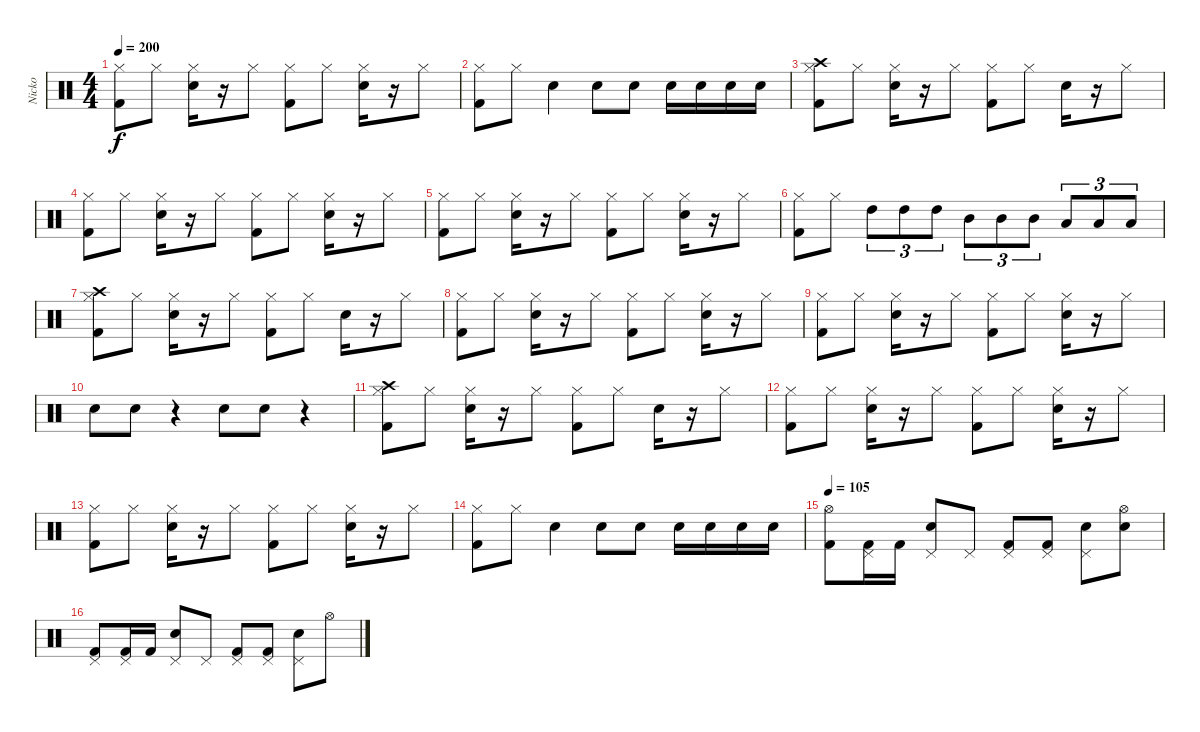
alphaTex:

\track ("Nicko" "Nicko") {instrument percussion}
\staff {score}
\articulation defaults
\ts (4 4)
\tempo 200
\clef neutral
\ks c
("Kick (hit) 2" "Hi-Hat (closed)").8{dy f} "Hi-Hat (closed)".8 ("Snare (hit) 2" "Hi-Hat (closed)").16 r.16 "Hi-Hat (closed)".8 ("Kick (hit) 2" "Hi-Hat (closed)").8 "Hi-Hat (closed)".8 ("Snare (hit) 2" "Hi-Hat (closed)").16 r.16 "Hi-Hat (closed)".8 |
("Kick (hit) 2" "Hi-Hat (closed)").8 "Hi-Hat (closed)".8 "Snare (hit) 2".4 "Snare (hit) 2".8 "Snare (hit) 2".8 "Snare (hit) 2".16 "Snare (hit) 2".16 "Snare (hit) 2".16 "Snare (hit) 2".16 |
("Kick (hit) 2" "Hi-Hat (closed)" "Crash high (hit)").8 "Hi-Hat (closed)".8 ("Snare (hit) 2" "Hi-Hat (closed)").16 r.16 "Hi-Hat (closed)".8 ("Kick (hit) 2" "Hi-Hat (closed)").8 "Hi-Hat (closed)".8 "Snare (hit) 2".16 r.16 "Hi-Hat (closed)".8 |
("Kick (hit) 2" "Hi-Hat (closed)").8 "Hi-Hat (closed)".8 ("Snare (hit) 2" "Hi-Hat (closed)").16 r.16 "Hi-Hat (closed)".8 ("Kick (hit) 2" "Hi-Hat (closed)").8 "Hi-Hat (closed)".8 ("Snare (hit) 2" "Hi-Hat (closed)").16 r.16 "Hi-Hat (closed)".8 |
("Kick (hit) 2" "Hi-Hat (closed)").8 "Hi-Hat (closed)".8 ("Snare (hit) 2" "Hi-Hat (closed)").16 r.16 "Hi-Hat (closed)".8 ("Kick (hit) 2" "Hi-Hat (closed)").8 "Hi-Hat (closed)".8 ("Snare (hit) 2" "Hi-Hat (closed)").16 r.16 "Hi-Hat (closed)".8 |
("Kick (hit) 2" "Hi-Hat (closed)").8 "Hi-Hat (closed)".8 "High Tom (hit)".8{tu (3 2)} "High Tom (hit)".8{tu (3 2)} "High Tom (hit)".8{tu (3 2)} "Mid Tom (hit)".8{tu (3 2)} "Mid Tom (hit)".8{tu (3 2)} "Mid Tom (hit)".8{tu (3 2)} "Low Tom (hit)".8{tu (3 2)} "Low Tom (hit)".8{tu (3 2)} "Low Tom (hit)".8{tu (3 2)} |
("Kick (hit) 2" "Hi-Hat (closed)" "Crash high (hit)").8 "Hi-Hat (closed)".8 ("Snare (hit) 2" "Hi-Hat (closed)").16 r.16 "Hi-Hat (closed)".8 ("Kick (hit) 2" "Hi-Hat (closed)").8 "Hi-Hat (closed)".8 "Snare (hit) 2".16 r.16 "Hi-Hat (closed)".8 |
("Kick (hit) 2" "Hi-Hat (closed)").8 "Hi-Hat (closed)".8 ("Snare (hit) 2" "Hi-Hat (closed)").16 r.16 "Hi-Hat (closed)".8 ("Kick (hit) 2" "Hi-Hat (closed)").8 "Hi-Hat (closed)".8 ("Snare (hit) 2" "Hi-Hat (closed)").16 r.16 "Hi-Hat (closed)".8 |
("Kick (hit) 2" "Hi-Hat (closed)").8 "Hi-Hat (closed)".8 ("Snare (hit) 2" "Hi-Hat (closed)").16 r.16 "Hi-Hat (closed)".8 ("Kick (hit) 2" "Hi-Hat (closed)").8 "Hi-Hat (closed)".8 ("Snare (hit) 2" "Hi-Hat (closed)").16 r.16 "Hi-Hat (closed)".8 |
"Snare (hit) 2".8 "Snare (hit) 2".8 r.4 "Snare (hit) 2".8 "Snare (hit) 2".8 r.4 |
("Kick (hit) 2" "Hi-Hat (closed)" "Crash high (hit)").8 "Hi-Hat (closed)".8 ("Snare (hit) 2" "Hi-Hat (closed)").16 r.16 "Hi-Hat (closed)".8 ("Kick (hit) 2" "Hi-Hat (closed)").8 "Hi-Hat (closed)".8 "Snare (hit) 2".16 r.16 "Hi-Hat (closed)".8 |
("Kick (hit) 2" "Hi-Hat (closed)").8 "Hi-Hat (closed)".8 ("Snare (hit) 2" "Hi-Hat (closed)").16 r.16 "Hi-Hat (closed)".8 ("Kick (hit) 2" "Hi-Hat (closed)").8 "Hi-Hat (closed)".8 ("Snare (hit) 2" "Hi-Hat (closed)").16 r.16 "Hi-Hat (closed)".8 |
("Kick (hit) 2" "Hi-Hat (closed)").8 "Hi-Hat (closed)".8 ("Snare (hit) 2" "Hi-Hat (closed)").16 r.16 "Hi-Hat (closed)".8 ("Kick (hit) 2" "Hi-Hat (closed)").8 "Hi-Hat (closed)".8 ("Snare (hit) 2" "Hi-Hat (closed)").16 r.16 "Hi-Hat (closed)".8 |
("Kick (hit) 2" "Hi-Hat (closed)").8 "Hi-Hat (closed)".8 "Snare (hit) 2".4 "Snare (hit) 2".8 "Snare (hit) 2".8 "Snare (hit) 2".16 "Snare (hit) 2".16 "Snare (hit) 2".16 "Snare (hit) 2".16 |
\tempo 105
("Kick (hit) 2" "Hi-Hat (open)").8 ("Kick (hit) 2" "Pedal Hi-Hat (hit)").16 "Kick (hit) 2".16 ("Snare (hit) 2" "Pedal Hi-Hat (hit)").8 "Pedal Hi-Hat (hit)".8 ("Kick (hit) 2" "Pedal Hi-Hat (hit)").8 ("Kick (hit) 2" "Pedal Hi-Hat (hit)").8 ("Snare (hit) 2" "Pedal Hi-Hat (hit)").8 ("Snare (hit) 2" "Hi-Hat (open)").8 |
("Kick (hit) 2" "Pedal Hi-Hat (hit)").8 ("Kick (hit) 2" "Pedal Hi-Hat (hit)").16 "Kick (hit) 2".16 ("Snare (hit) 2" "Pedal Hi-Hat (hit)").8 "Pedal Hi-Hat (hit)".8 ("Kick (hit) 2" "Pedal Hi-Hat (hit)").8 ("Kick (hit) 2" "Pedal Hi-Hat (hit)").8 ("Snare (hit) 2" "Pedal Hi-Hat (hit)").8 "Hi-Hat (open)".8
